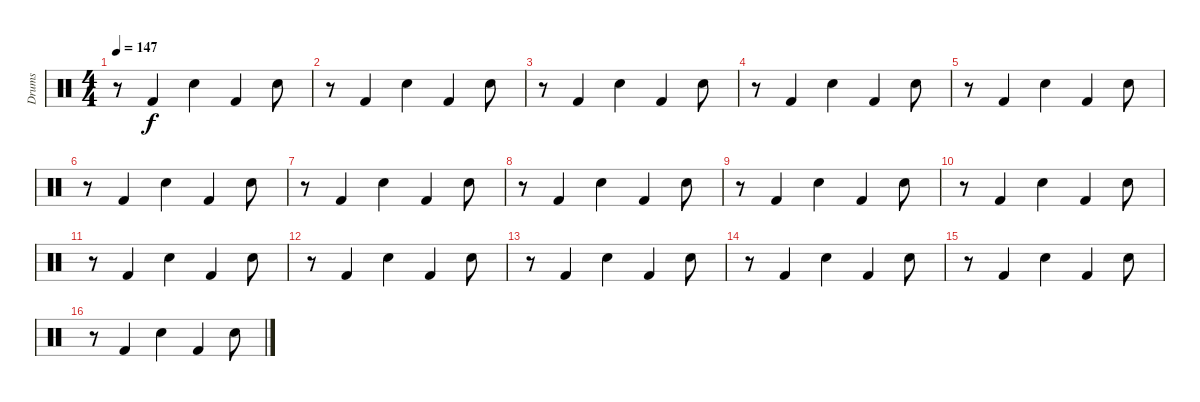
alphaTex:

\track ("Drums" "Drums") {instrument percussion}
\staff {score}
\articulation defaults
\ts (4 4)
\tempo 147
\clef neutral
\ks c
r.8{dy f} "Kick (hit) 2".4 "Snare (hit) 2".4 "Kick (hit) 2".4 "Snare (hit) 2".8 |
r.8 "Kick (hit) 2".4 "Snare (hit) 2".4 "Kick (hit) 2".4 "Snare (hit) 2".8 |
r.8 "Kick (hit) 2".4 "Snare (hit) 2".4 "Kick (hit) 2".4 "Snare (hit) 2".8 |
r.8 "Kick (hit) 2".4 "Snare (hit) 2".4 "Kick (hit) 2".4 "Snare (hit) 2".8 |
r.8 "Kick (hit) 2".4 "Snare (hit) 2".4 "Kick (hit) 2".4 "Snare (hit) 2".8 |
r.8 "Kick (hit) 2".4 "Snare (hit) 2".4 "Kick (hit) 2".4 "Snare (hit) 2".8 |
r.8 "Kick (hit) 2".4 "Snare (hit) 2".4 "Kick (hit) 2".4 "Snare (hit) 2".8 |
r.8 "Kick (hit) 2".4 "Snare (hit) 2".4 "Kick (hit) 2".4 "Snare (hit) 2".8 |
r.8 "Kick (hit) 2".4 "Snare (hit) 2".4 "Kick (hit) 2".4 "Snare (hit) 2".8 |
r.8 "Kick (hit) 2".4 "Snare (hit) 2".4 "Kick (hit) 2".4 "Snare (hit) 2".8 |
r.8 "Kick (hit) 2".4 "Snare (hit) 2".4 "Kick (hit) 2".4 "Snare (hit) 2".8 |
r.8 "Kick (hit) 2".4 "Snare (hit) 2".4 "Kick (hit) 2".4 "Snare (hit) 2".8 |
r.8 "Kick (hit) 2".4 "Snare (hit) 2".4 "Kick (hit) 2".4 "Snare (hit) 2".8 |
r.8 "Kick (hit) 2".4 "Snare (hit) 2".4 "Kick (hit) 2".4 "Snare (hit) 2".8 |
r.8 "Kick (hit) 2".4 "Snare (hit) 2".4 "Kick (hit) 2".4 "Snare (hit) 2".8 |
r.8 "Kick (hit) 2".4 "Snare (hit) 2".4 "Kick (hit) 2".4 "Snare (hit) 2".8
